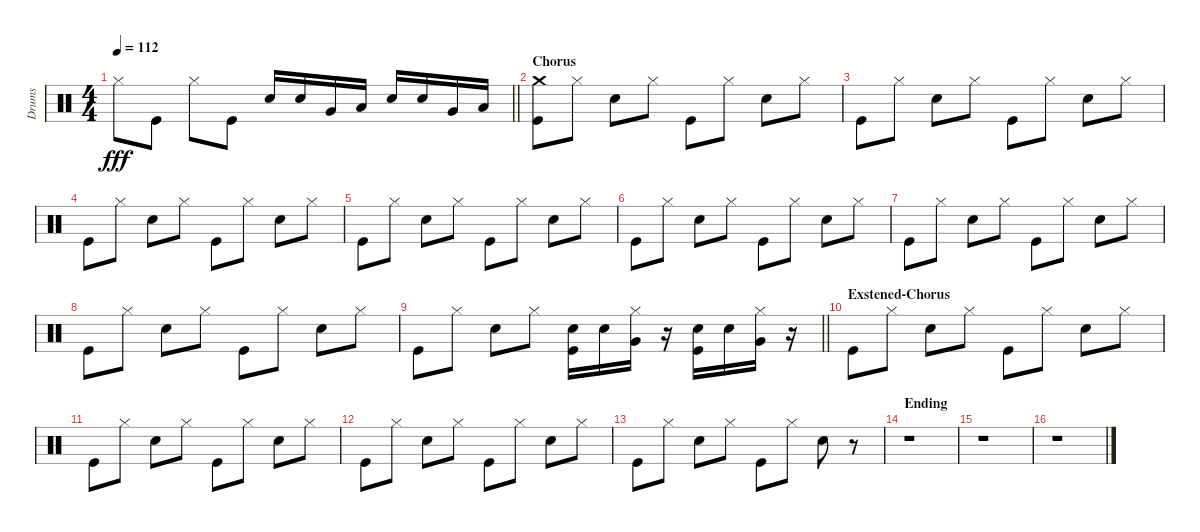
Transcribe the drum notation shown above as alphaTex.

\track ("Drums" "Drums") {instrument percussion}
\staff {score}
\articulation defaults
\ts (4 4)
\tempo 112
\clef neutral
\barLineRight lightlight
\ks c "Hi-Hat (closed)".8{dy fff} "Kick (hit)".8 "Hi-Hat (closed)".8 "Kick (hit)".8 "Snare (hit) 2".16 "Snare (hit) 2".16 "Very Low Tom (hit)".16 "Low Floor Tom (hit)".16 "Snare (hit) 2".16 "Snare (hit) 2".16 "Very Low Tom (hit)".16 "Low Floor Tom (hit)".16
|
\section ("" "Chorus")
("Crash medium (hit)" "Kick (hit)").8 "Hi-Hat (closed)".8 "Snare (hit) 2".8 "Hi-Hat (closed)".8 "Kick (hit)".8 "Hi-Hat (closed)".8 "Snare (hit) 2".8 "Hi-Hat (closed)".8 |
"Kick (hit)".8 "Hi-Hat (closed)".8 "Snare (hit) 2".8 "Hi-Hat (closed)".8 "Kick (hit)".8 "Hi-Hat (closed)".8 "Snare (hit) 2".8 "Hi-Hat (closed)".8 |
"Kick (hit)".8 "Hi-Hat (closed)".8 "Snare (hit) 2".8 "Hi-Hat (closed)".8 "Kick (hit)".8 "Hi-Hat (closed)".8 "Snare (hit) 2".8 "Hi-Hat (closed)".8 |
"Kick (hit)".8 "Hi-Hat (closed)".8 "Snare (hit) 2".8 "Hi-Hat (closed)".8 "Kick (hit)".8 "Hi-Hat (closed)".8 "Snare (hit) 2".8 "Hi-Hat (closed)".8 |
"Kick (hit)".8 "Hi-Hat (closed)".8 "Snare (hit) 2".8 "Hi-Hat (closed)".8 "Kick (hit)".8 "Hi-Hat (closed)".8 "Snare (hit) 2".8 "Hi-Hat (closed)".8 |
"Kick (hit)".8 "Hi-Hat (closed)".8 "Snare (hit) 2".8 "Hi-Hat (closed)".8 "Kick (hit)".8 "Hi-Hat (closed)".8 "Snare (hit) 2".8 "Hi-Hat (closed)".8 |
"Kick (hit)".8 "Hi-Hat (closed)".8 "Snare (hit) 2".8 "Hi-Hat (closed)".8 "Kick (hit)".8 "Hi-Hat (closed)".8 "Snare (hit) 2".8 "Hi-Hat (closed)".8 |
\barLineRight lightlight "Kick (hit)".8 "Hi-Hat (closed)".8 "Snare (hit) 2".8 "Hi-Hat (closed)".8
("Snare (hit) 2" "Kick (hit)").16 "Snare (hit) 2".16 ("Hi-Hat (closed)" "Very Low Tom (hit)").16 r.16 ("Snare (hit) 2" "Kick (hit)").16 "Snare (hit) 2".16 ("Hi-Hat (closed)" "Very Low Tom (hit)").16 r.16 |
\section ("" "Exstened-Chorus")
"Kick (hit)".8 "Hi-Hat (closed)".8 "Snare (hit) 2".8 "Hi-Hat (closed)".8 "Kick (hit)".8 "Hi-Hat (closed)".8 "Snare (hit) 2".8 "Hi-Hat (closed)".8 |
"Kick (hit)".8 "Hi-Hat (closed)".8 "Snare (hit) 2".8 "Hi-Hat (closed)".8 "Kick (hit)".8 "Hi-Hat (closed)".8 "Snare (hit) 2".8 "Hi-Hat (closed)".8 |
"Kick (hit)".8 "Hi-Hat (closed)".8 "Snare (hit) 2".8 "Hi-Hat (closed)".8 "Kick (hit)".8 "Hi-Hat (closed)".8 "Snare (hit) 2".8 "Hi-Hat (closed)".8 |
"Kick (hit)".8 "Hi-Hat (closed)".8 "Snare (hit) 2".8 "Hi-Hat (closed)".8 "Kick (hit)".8 "Hi-Hat (closed)".8 "Snare (hit) 2".8 r.8 |
\section ("" "Ending")
r.1 |
r.1 |
r.1
